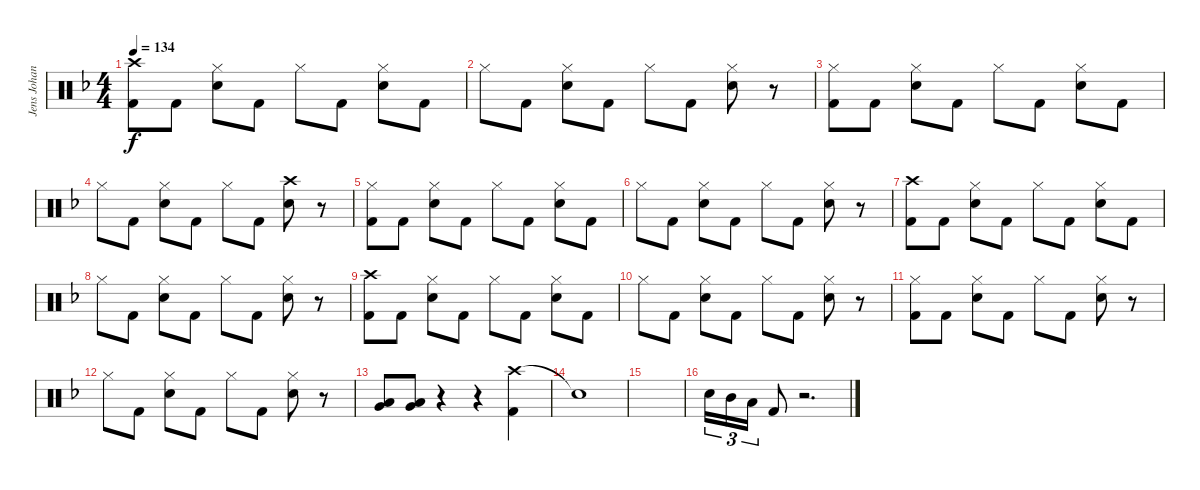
\track ("Jens Johansson" "Jens Johan") {instrument percussion}
\staff {score}
\articulation defaults
\ts (4 4)
\tempo 134
\clef neutral
\ks f
("Crash high (hit)" "Kick (hit) 2").8{dy f} "Kick (hit) 2".8 ("Electric Snare (hit)" "Hi-Hat (closed)").8 "Kick (hit) 2".8 "Hi-Hat (closed)".8 "Kick (hit) 2".8 ("Electric Snare (hit)" "Hi-Hat (closed)").8 "Kick (hit) 2".8 |
"Hi-Hat (closed)".8 "Kick (hit) 2".8 ("Electric Snare (hit)" "Hi-Hat (closed)").8 "Kick (hit) 2".8 "Hi-Hat (closed)".8 "Kick (hit) 2".8 ("Electric Snare (hit)" "Hi-Hat (closed)").8 r.8 |
("Hi-Hat (closed)" "Kick (hit) 2").8 "Kick (hit) 2".8 ("Electric Snare (hit)" "Hi-Hat (closed)").8 "Kick (hit) 2".8 "Hi-Hat (closed)".8 "Kick (hit) 2".8 ("Electric Snare (hit)" "Hi-Hat (closed)").8 "Kick (hit) 2".8 |
"Hi-Hat (closed)".8 "Kick (hit) 2".8 ("Electric Snare (hit)" "Hi-Hat (closed)").8 "Kick (hit) 2".8 "Hi-Hat (closed)".8 "Kick (hit) 2".8 ("Crash high (hit)" "Electric Snare (hit)").8 r.8 |
("Hi-Hat (closed)" "Kick (hit) 2").8 "Kick (hit) 2".8 ("Electric Snare (hit)" "Hi-Hat (closed)").8 "Kick (hit) 2".8 "Hi-Hat (closed)".8 "Kick (hit) 2".8 ("Electric Snare (hit)" "Hi-Hat (closed)").8 "Kick (hit) 2".8 |
"Hi-Hat (closed)".8 "Kick (hit) 2".8 ("Electric Snare (hit)" "Hi-Hat (closed)").8 "Kick (hit) 2".8 "Hi-Hat (closed)".8 "Kick (hit) 2".8 ("Electric Snare (hit)" "Hi-Hat (closed)").8 r.8 |
("Crash high (hit)" "Kick (hit) 2").8 "Kick (hit) 2".8 ("Electric Snare (hit)" "Hi-Hat (closed)").8 "Kick (hit) 2".8 "Hi-Hat (closed)".8 "Kick (hit) 2".8 ("Electric Snare (hit)" "Hi-Hat (closed)").8 "Kick (hit) 2".8 |
"Hi-Hat (closed)".8 "Kick (hit) 2".8 ("Electric Snare (hit)" "Hi-Hat (closed)").8 "Kick (hit) 2".8 "Hi-Hat (closed)".8 "Kick (hit) 2".8 ("Electric Snare (hit)" "Hi-Hat (closed)").8 r.8 |
("Crash high (hit)" "Kick (hit) 2").8 "Kick (hit) 2".8 ("Electric Snare (hit)" "Hi-Hat (closed)").8 "Kick (hit) 2".8 "Hi-Hat (closed)".8 "Kick (hit) 2".8 ("Electric Snare (hit)" "Hi-Hat (closed)").8 "Kick (hit) 2".8 |
"Hi-Hat (closed)".8 "Kick (hit) 2".8 ("Electric Snare (hit)" "Hi-Hat (closed)").8 "Kick (hit) 2".8 "Hi-Hat (closed)".8 "Kick (hit) 2".8 ("Electric Snare (hit)" "Hi-Hat (closed)").8 r.8 |
("Hi-Hat (closed)" "Kick (hit) 2").8 "Kick (hit) 2".8 ("Electric Snare (hit)" "Hi-Hat (closed)").8 "Kick (hit) 2".8 "Hi-Hat (closed)".8 "Kick (hit) 2".8 ("Electric Snare (hit)" "Hi-Hat (closed)").8 r.8 |
"Hi-Hat (closed)".8 "Kick (hit) 2".8 ("Electric Snare (hit)" "Hi-Hat (closed)").8 "Kick (hit) 2".8 "Hi-Hat (closed)".8 "Kick (hit) 2".8 ("Electric Snare (hit)" "Hi-Hat (closed)").8 r.8 |
("Low Tom (hit)" "Very Low Tom (hit)").8 ("Low Tom (hit)" "Very Low Tom (hit)").8 r.4 r.4 ("Crash high (hit)" "Kick (hit) 2").4 |
"Snare (hit)"{t}.1 |
|
"Electric Snare (hit)".16{tu (3 2)} "Mid Tom (hit)".16{tu (3 2)} "Low Tom (hit)".16{tu (3 2)} "Kick (hit) 2".8 r.2{d}
